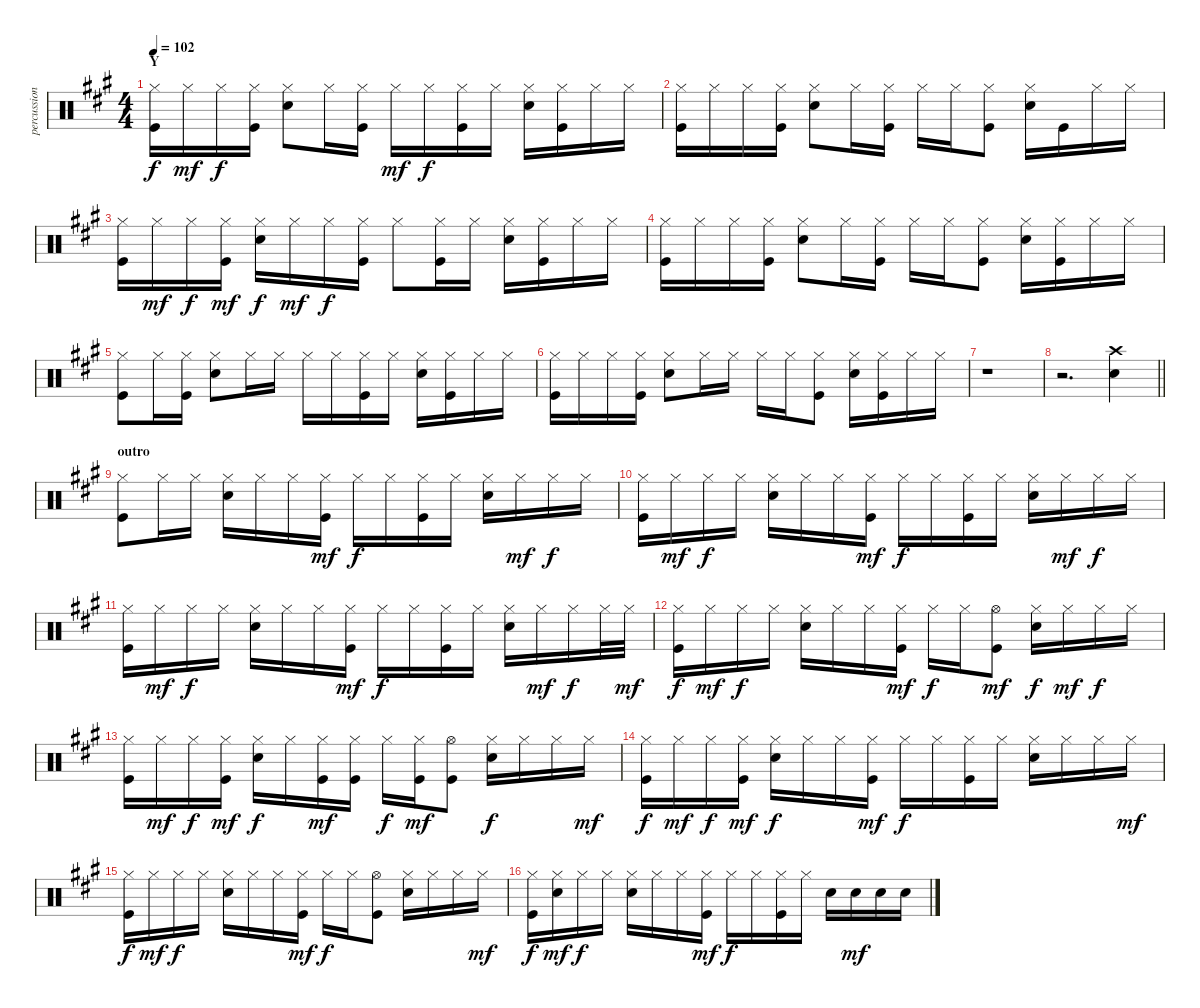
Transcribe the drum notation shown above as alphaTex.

\track ("percussion" "percussion") {instrument percussion}
\staff {score}
\articulation defaults
\ts (4 4)
\section ("" "Y")
\tempo 102
\clef neutral
\ks a
("Hi-Hat (closed)" "Kick (hit)").16{dy f} "Hi-Hat (closed)".16{dy mf} "Hi-Hat (closed)".16{dy f} ("Hi-Hat (closed)" "Kick (hit)").16 ("Electric Snare (hit)" "Hi-Hat (closed)").8 "Hi-Hat (closed)".16 ("Hi-Hat (closed)" "Kick (hit)").16 "Hi-Hat (closed)".16{dy mf} "Hi-Hat (closed)".16{dy f} ("Hi-Hat (closed)" "Kick (hit)").16 "Hi-Hat (closed)".16 ("Electric Snare (hit)" "Hi-Hat (closed)").16 ("Hi-Hat (closed)" "Kick (hit)").16 "Hi-Hat (closed)".16 "Hi-Hat (closed)".16 |
("Hi-Hat (closed)" "Kick (hit)").16 "Hi-Hat (closed)".16 "Hi-Hat (closed)".16 ("Hi-Hat (closed)" "Kick (hit)").16 ("Electric Snare (hit)" "Hi-Hat (closed)").8 "Hi-Hat (closed)".16 ("Hi-Hat (closed)" "Kick (hit)").16 "Hi-Hat (closed)".16 "Hi-Hat (closed)".16 ("Hi-Hat (closed)" "Kick (hit)").8 ("Electric Snare (hit)" "Hi-Hat (closed)").16 "Kick (hit)".16 "Hi-Hat (closed)".16 "Hi-Hat (closed)".16 |
("Hi-Hat (closed)" "Kick (hit)").16 "Hi-Hat (closed)".16{dy mf} "Hi-Hat (closed)".16{dy f} ("Hi-Hat (closed)" "Kick (hit)").16{dy mf} ("Electric Snare (hit)" "Hi-Hat (closed)").16{dy f} "Hi-Hat (closed)".16{dy mf} "Hi-Hat (closed)".16{dy f} ("Hi-Hat (closed)" "Kick (hit)").16 "Hi-Hat (closed)".8 ("Hi-Hat (closed)" "Kick (hit)").16 "Hi-Hat (closed)".16 ("Electric Snare (hit)" "Hi-Hat (closed)").16 ("Hi-Hat (closed)" "Kick (hit)").16 "Hi-Hat (closed)".16 "Hi-Hat (closed)".16 |
("Hi-Hat (closed)" "Kick (hit)").16 "Hi-Hat (closed)".16 "Hi-Hat (closed)".16 ("Hi-Hat (closed)" "Kick (hit)").16 ("Electric Snare (hit)" "Hi-Hat (closed)").8 "Hi-Hat (closed)".16 ("Hi-Hat (closed)" "Kick (hit)").16 "Hi-Hat (closed)".16 "Hi-Hat (closed)".16 ("Hi-Hat (closed)" "Kick (hit)").8 ("Electric Snare (hit)" "Hi-Hat (closed)").16 ("Hi-Hat (closed)" "Kick (hit)").16 "Hi-Hat (closed)".16 "Hi-Hat (closed)".16 |
("Hi-Hat (closed)" "Kick (hit)").8 "Hi-Hat (closed)".16 ("Hi-Hat (closed)" "Kick (hit)").16 ("Electric Snare (hit)" "Hi-Hat (closed)").8 "Hi-Hat (closed)".16 "Hi-Hat (closed)".16 "Hi-Hat (closed)".16 "Hi-Hat (closed)".16 ("Hi-Hat (closed)" "Kick (hit)").16 "Hi-Hat (closed)".16 ("Electric Snare (hit)" "Hi-Hat (closed)").16 ("Hi-Hat (closed)" "Kick (hit)").16 "Hi-Hat (closed)".16 "Hi-Hat (closed)".16 |
("Hi-Hat (closed)" "Kick (hit)").16 "Hi-Hat (closed)".16 "Hi-Hat (closed)".16 ("Hi-Hat (closed)" "Kick (hit)").16 ("Electric Snare (hit)" "Hi-Hat (closed)").8 "Hi-Hat (closed)".16 "Hi-Hat (closed)".16 "Hi-Hat (closed)".16 "Hi-Hat (closed)".16 ("Hi-Hat (closed)" "Kick (hit)").8 ("Electric Snare (hit)" "Hi-Hat (closed)").16 ("Hi-Hat (closed)" "Kick (hit)").16 "Hi-Hat (closed)".16 "Hi-Hat (closed)".16 |
r.1 |
\barLineRight lightlight
r.2{d} ("Crash high (hit)" "Electric Snare (hit)").4 |
\section ("" "outro")
("Hi-Hat (closed)" "Kick (hit)").8 "Hi-Hat (closed)".16 "Hi-Hat (closed)".16 ("Electric Snare (hit)" "Hi-Hat (closed)").16 "Hi-Hat (closed)".16 "Hi-Hat (closed)".16 ("Hi-Hat (closed)" "Kick (hit)").16{dy mf} "Hi-Hat (closed)".16{dy f} "Hi-Hat (closed)".16 ("Hi-Hat (closed)" "Kick (hit)").16 "Hi-Hat (closed)".16 ("Electric Snare (hit)" "Hi-Hat (closed)").16 "Hi-Hat (closed)".16{dy mf} "Hi-Hat (closed)".16{dy f} "Hi-Hat (closed)".16 |
("Hi-Hat (closed)" "Kick (hit)").16 "Hi-Hat (closed)".16{dy mf} "Hi-Hat (closed)".16{dy f} "Hi-Hat (closed)".16 ("Electric Snare (hit)" "Hi-Hat (closed)").16 "Hi-Hat (closed)".16 "Hi-Hat (closed)".16 ("Hi-Hat (closed)" "Kick (hit)").16{dy mf} "Hi-Hat (closed)".16{dy f} "Hi-Hat (closed)".16 ("Hi-Hat (closed)" "Kick (hit)").16 "Hi-Hat (closed)".16 ("Electric Snare (hit)" "Hi-Hat (closed)").16 "Hi-Hat (closed)".16{dy mf} "Hi-Hat (closed)".16{dy f} "Hi-Hat (closed)".16 |
("Hi-Hat (closed)" "Kick (hit)").16 "Hi-Hat (closed)".16{dy mf} "Hi-Hat (closed)".16{dy f} "Hi-Hat (closed)".16 ("Electric Snare (hit)" "Hi-Hat (closed)").16 "Hi-Hat (closed)".16 "Hi-Hat (closed)".16 ("Hi-Hat (closed)" "Kick (hit)").16{dy mf} "Hi-Hat (closed)".16{dy f} "Hi-Hat (closed)".16 ("Hi-Hat (closed)" "Kick (hit)").16 "Hi-Hat (closed)".16 ("Electric Snare (hit)" "Hi-Hat (closed)").16 "Hi-Hat (closed)".16{dy mf} "Hi-Hat (closed)".16{dy f} "Hi-Hat (closed)".32 "Hi-Hat (closed)".32{dy mf} |
("Hi-Hat (closed)" "Kick (hit)").16{dy f} "Hi-Hat (closed)".16{dy mf} "Hi-Hat (closed)".16{dy f} "Hi-Hat (closed)".16 ("Electric Snare (hit)" "Hi-Hat (closed)").16 "Hi-Hat (closed)".16 "Hi-Hat (closed)".16 ("Hi-Hat (closed)" "Kick (hit)").16{dy mf} "Hi-Hat (closed)".16{dy f} "Hi-Hat (closed)".16 ("Hi-Hat (open)" "Kick (hit)").8{dy mf} ("Electric Snare (hit)" "Hi-Hat (closed)").16{dy f} "Hi-Hat (closed)".16{dy mf} "Hi-Hat (closed)".16{dy f} "Hi-Hat (closed)".16 |
("Hi-Hat (closed)" "Kick (hit)").16 "Hi-Hat (closed)".16{dy mf} "Hi-Hat (closed)".16{dy f} ("Hi-Hat (closed)" "Kick (hit)").16{dy mf} ("Electric Snare (hit)" "Hi-Hat (closed)").16{dy f} "Hi-Hat (closed)".16 ("Hi-Hat (closed)" "Kick (hit)").16{dy mf} ("Hi-Hat (closed)" "Kick (hit)").16 "Hi-Hat (closed)".16{dy f} ("Hi-Hat (closed)" "Kick (hit)").16{dy mf} ("Hi-Hat (open)" "Kick (hit)").8 ("Electric Snare (hit)" "Hi-Hat (closed)").16{dy f} "Hi-Hat (closed)".16 "Hi-Hat (closed)".16 "Hi-Hat (closed)".16{dy mf} |
("Hi-Hat (closed)" "Kick (hit)").16{dy f} "Hi-Hat (closed)".16{dy mf} "Hi-Hat (closed)".16{dy f} ("Hi-Hat (closed)" "Kick (hit)").16{dy mf} ("Electric Snare (hit)" "Hi-Hat (closed)").16{dy f} "Hi-Hat (closed)".16 "Hi-Hat (closed)".16 ("Hi-Hat (closed)" "Kick (hit)").16{dy mf} "Hi-Hat (closed)".16{dy f} "Hi-Hat (closed)".16 ("Hi-Hat (closed)" "Kick (hit)").16 "Hi-Hat (closed)".16 ("Electric Snare (hit)" "Hi-Hat (closed)").16 "Hi-Hat (closed)".16 "Hi-Hat (closed)".16 "Hi-Hat (closed)".16{dy mf} |
("Hi-Hat (closed)" "Kick (hit)").16{dy f} "Hi-Hat (closed)".16{dy mf} "Hi-Hat (closed)".16{dy f} "Hi-Hat (closed)".16 ("Electric Snare (hit)" "Hi-Hat (closed)").16 "Hi-Hat (closed)".16 "Hi-Hat (closed)".16 ("Hi-Hat (closed)" "Kick (hit)").16{dy mf} "Hi-Hat (closed)".16{dy f} "Hi-Hat (closed)".16 ("Hi-Hat (open)" "Kick (hit)").8 ("Electric Snare (hit)" "Hi-Hat (closed)").16 "Hi-Hat (closed)".16 "Hi-Hat (closed)".16 "Hi-Hat (closed)".16{dy mf} |
("Hi-Hat (closed)" "Kick (hit)").16{dy f} ("Electric Snare (hit)" "Hi-Hat (closed)").16{dy mf} "Hi-Hat (closed)".16{dy f} "Hi-Hat (closed)".16 ("Electric Snare (hit)" "Hi-Hat (closed)").16 "Hi-Hat (closed)".16 "Hi-Hat (closed)".16 ("Hi-Hat (closed)" "Kick (hit)").16{dy mf} "Hi-Hat (closed)".16{dy f} "Hi-Hat (closed)".16 ("Hi-Hat (closed)" "Kick (hit)").16 "Hi-Hat (closed)".16 "Electric Snare (hit)".16 "Electric Snare (hit)".16{dy mf} "Electric Snare (hit)".16 "Electric Snare (hit)".16
